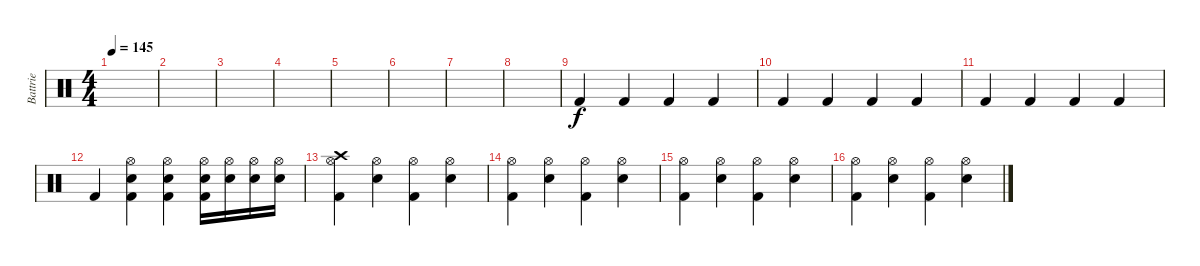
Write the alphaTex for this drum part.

\track ("Battrie" "Battrie") {instrument percussion}
\staff {score}
\articulation defaults
\ts (4 4)
\tempo 145
\clef neutral
\ks c
|
|
|
|
|
|
|
|
"Kick (hit) 2".4 "Kick (hit) 2".4 "Kick (hit) 2".4 "Kick (hit) 2".4 |
"Kick (hit) 2".4 "Kick (hit) 2".4 "Kick (hit) 2".4 "Kick (hit) 2".4 |
"Kick (hit) 2".4 "Kick (hit) 2".4 "Kick (hit) 2".4 "Kick (hit) 2".4 |
"Kick (hit) 2".4 ("Kick (hit) 2" "Snare (hit) 2" "Hi-Hat (open)").4 ("Kick (hit) 2" "Snare (hit) 2" "Hi-Hat (open)").4 ("Hi-Hat (open)" "Snare (hit) 2" "Kick (hit) 2").16 ("Hi-Hat (open)" "Snare (hit) 2").16 ("Snare (hit) 2" "Hi-Hat (open)").16 ("Snare (hit) 2" "Hi-Hat (open)").16 |
("Hi-Hat (open)" "Kick (hit) 2" "Crash high (hit)").4 ("Hi-Hat (open)" "Snare (hit) 2").4 ("Hi-Hat (open)" "Kick (hit) 2").4 ("Snare (hit) 2" "Hi-Hat (open)").4 |
("Hi-Hat (open)" "Kick (hit) 2").4 ("Hi-Hat (open)" "Snare (hit) 2").4 ("Hi-Hat (open)" "Kick (hit) 2").4 ("Snare (hit) 2" "Hi-Hat (open)").4 |
("Hi-Hat (open)" "Kick (hit) 2").4 ("Hi-Hat (open)" "Snare (hit) 2").4 ("Hi-Hat (open)" "Kick (hit) 2").4 ("Snare (hit) 2" "Hi-Hat (open)").4 |
("Hi-Hat (open)" "Kick (hit) 2").4 ("Hi-Hat (open)" "Snare (hit) 2").4 ("Hi-Hat (open)" "Kick (hit) 2").4 ("Snare (hit) 2" "Hi-Hat (open)").4
